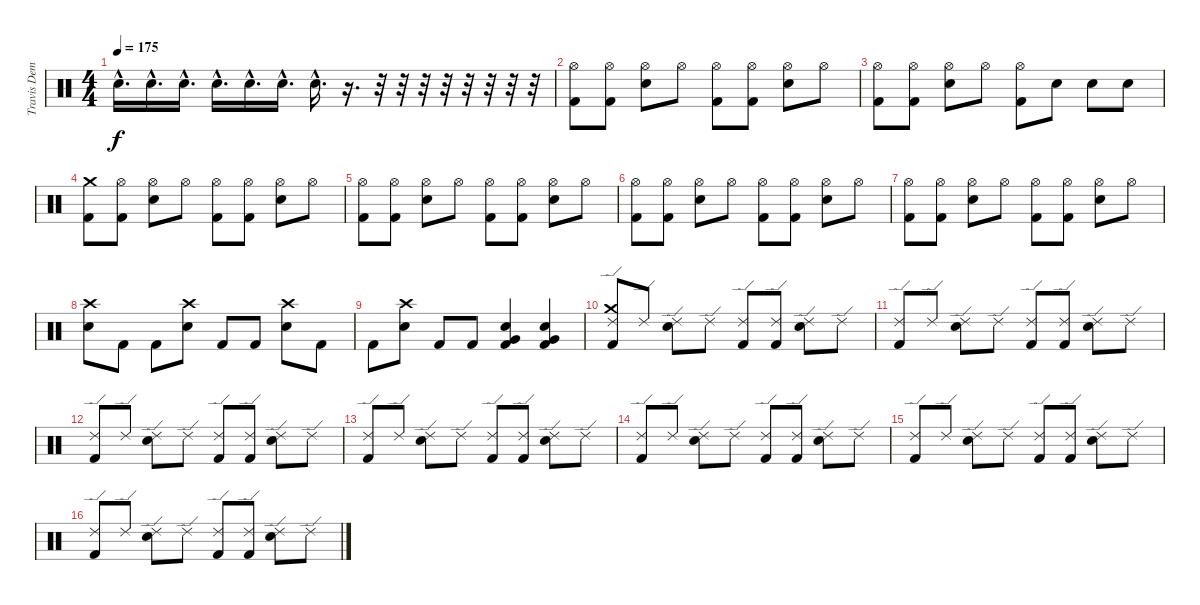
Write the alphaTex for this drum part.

\track ("Travis Dempsey" "Travis Dem") {instrument percussion}
\staff {score}
\articulation defaults
\ts (4 4)
\tempo 175
\clef neutral
\ks c "Electric Snare (hit)"{hac}.16{d dy f} "Electric Snare (hit)"{hac}.16{d} "Electric Snare (hit)"{hac}.16{d} "Electric Snare (hit)"{hac}.16{d} "Electric Snare (hit)"{hac}.16{d} "Electric Snare (hit)"{hac}.16{d} "Electric Snare (hit)"{hac}.16{d}
r.16{d} r.32 r.32 r.32 r.32 r.32 r.32 r.32 r.32 |
("Hi-Hat (open)" "Kick (hit) 2").8 ("Hi-Hat (open)" "Kick (hit) 2").8 ("Hi-Hat (open)" "Electric Snare (hit)").8 "Hi-Hat (open)".8 ("Hi-Hat (open)" "Kick (hit) 2").8 ("Hi-Hat (open)" "Kick (hit) 2").8 ("Hi-Hat (open)" "Electric Snare (hit)").8 "Hi-Hat (open)".8 |
("Hi-Hat (open)" "Kick (hit) 2").8 ("Hi-Hat (open)" "Kick (hit) 2").8 ("Hi-Hat (open)" "Electric Snare (hit)").8 "Hi-Hat (open)".8 ("Hi-Hat (open)" "Kick (hit) 2").8 "Electric Snare (hit)".8 "Electric Snare (hit)".8 "Electric Snare (hit)".8 |
("Crash medium (hit)" "Kick (hit) 2").8 ("Hi-Hat (open)" "Kick (hit) 2").8 ("Hi-Hat (open)" "Electric Snare (hit)").8 "Hi-Hat (open)".8 ("Hi-Hat (open)" "Kick (hit) 2").8 ("Hi-Hat (open)" "Kick (hit) 2").8 ("Hi-Hat (open)" "Electric Snare (hit)").8 "Hi-Hat (open)".8 |
("Hi-Hat (open)" "Kick (hit) 2").8 ("Hi-Hat (open)" "Kick (hit) 2").8 ("Hi-Hat (open)" "Electric Snare (hit)").8 "Hi-Hat (open)".8 ("Hi-Hat (open)" "Kick (hit) 2").8 ("Hi-Hat (open)" "Kick (hit) 2").8 ("Hi-Hat (open)" "Electric Snare (hit)").8 "Hi-Hat (open)".8 |
("Hi-Hat (open)" "Kick (hit) 2").8 ("Hi-Hat (open)" "Kick (hit) 2").8 ("Hi-Hat (open)" "Electric Snare (hit)").8 "Hi-Hat (open)".8 ("Hi-Hat (open)" "Kick (hit) 2").8 ("Hi-Hat (open)" "Kick (hit) 2").8 ("Hi-Hat (open)" "Electric Snare (hit)").8 "Hi-Hat (open)".8 |
("Hi-Hat (open)" "Kick (hit) 2").8 ("Hi-Hat (open)" "Kick (hit) 2").8 ("Hi-Hat (open)" "Electric Snare (hit)").8 "Hi-Hat (open)".8 ("Hi-Hat (open)" "Kick (hit) 2").8 ("Hi-Hat (open)" "Kick (hit) 2").8 ("Hi-Hat (open)" "Electric Snare (hit)").8 "Hi-Hat (open)".8 |
("Crash high (hit)" "Electric Snare (hit)").8 "Kick (hit) 2".8 "Kick (hit) 2".8 ("Crash high (hit)" "Electric Snare (hit)").8 "Kick (hit) 2".8 "Kick (hit) 2".8 ("Crash high (hit)" "Electric Snare (hit)").8 "Kick (hit) 2".8 |
"Kick (hit) 2".8 ("Crash high (hit)" "Electric Snare (hit)").8 "Kick (hit) 2".8 "Kick (hit) 2".8 ("Electric Snare (hit)" "Very Low Tom (hit)" "Kick (hit) 2").4 ("Electric Snare (hit)" "Very Low Tom (hit)" "Kick (hit) 2").4 |
("Crash medium (hit)" "Ride (edge) 2" "Kick (hit) 2").8 "Ride (edge) 2".8 ("Ride (edge) 2" "Electric Snare (hit)").8 "Ride (edge) 2".8 ("Ride (edge) 2" "Kick (hit) 2").8 ("Ride (edge) 2" "Kick (hit) 2").8 ("Ride (edge) 2" "Electric Snare (hit)").8 "Ride (edge) 2".8 |
("Ride (edge) 2" "Kick (hit) 2").8 "Ride (edge) 2".8 ("Ride (edge) 2" "Electric Snare (hit)").8 "Ride (edge) 2".8 ("Ride (edge) 2" "Kick (hit) 2").8 ("Ride (edge) 2" "Kick (hit) 2").8 ("Ride (edge) 2" "Electric Snare (hit)").8 "Ride (edge) 2".8 |
("Ride (edge) 2" "Kick (hit) 2").8 "Ride (edge) 2".8 ("Ride (edge) 2" "Electric Snare (hit)").8 "Ride (edge) 2".8 ("Ride (edge) 2" "Kick (hit) 2").8 ("Ride (edge) 2" "Kick (hit) 2").8 ("Ride (edge) 2" "Electric Snare (hit)").8 "Ride (edge) 2".8 |
("Ride (edge) 2" "Kick (hit) 2").8 "Ride (edge) 2".8 ("Ride (edge) 2" "Electric Snare (hit)").8 "Ride (edge) 2".8 ("Ride (edge) 2" "Kick (hit) 2").8 ("Ride (edge) 2" "Kick (hit) 2").8 ("Ride (edge) 2" "Electric Snare (hit)").8 "Ride (edge) 2".8 |
("Ride (edge) 2" "Kick (hit) 2").8 "Ride (edge) 2".8 ("Ride (edge) 2" "Electric Snare (hit)").8 "Ride (edge) 2".8 ("Ride (edge) 2" "Kick (hit) 2").8 ("Ride (edge) 2" "Kick (hit) 2").8 ("Ride (edge) 2" "Electric Snare (hit)").8 "Ride (edge) 2".8 |
("Ride (edge) 2" "Kick (hit) 2").8 "Ride (edge) 2".8 ("Ride (edge) 2" "Electric Snare (hit)").8 "Ride (edge) 2".8 ("Ride (edge) 2" "Kick (hit) 2").8 ("Ride (edge) 2" "Kick (hit) 2").8 ("Ride (edge) 2" "Electric Snare (hit)").8 "Ride (edge) 2".8 |
("Ride (edge) 2" "Kick (hit) 2").8 "Ride (edge) 2".8 ("Ride (edge) 2" "Electric Snare (hit)").8 "Ride (edge) 2".8 ("Ride (edge) 2" "Kick (hit) 2").8 ("Ride (edge) 2" "Kick (hit) 2").8 ("Ride (edge) 2" "Electric Snare (hit)").8 "Ride (edge) 2".8
